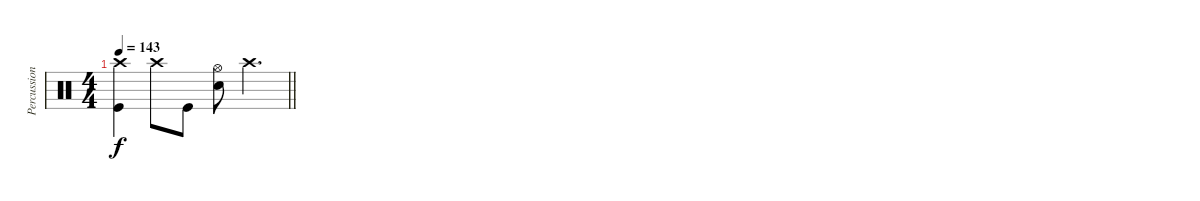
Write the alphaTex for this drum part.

\track ("Percussion" "Percussion") {instrument percussion}
\staff {score}
\articulation defaults
\ts (4 4)
\tempo 143
\clef neutral
\barLineRight lightlight
\ks c
("Crash high (hit)" "Kick (hit)").4{dy f} "Crash high (hit)".8 "Kick (hit)".8 ("Hi-Hat (open)" "Electric Snare (hit)").8 "Crash high (hit)".4{d}
